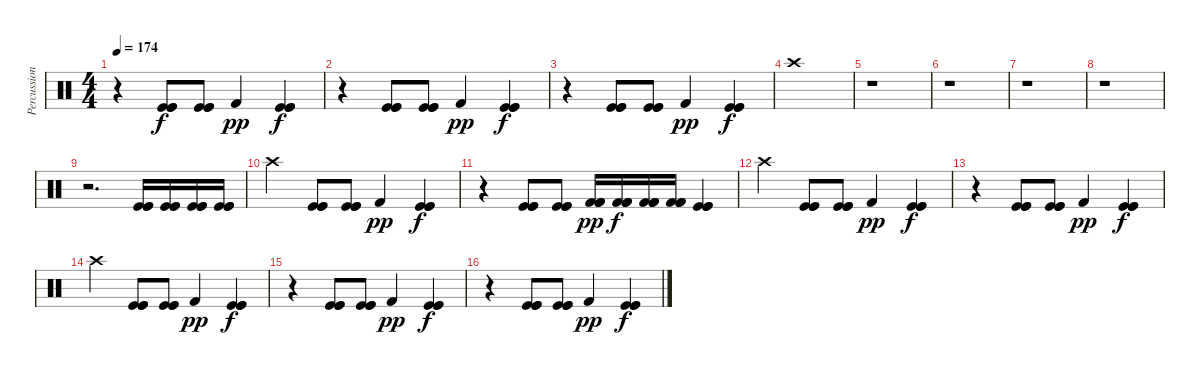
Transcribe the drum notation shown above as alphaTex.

\track ("Percussions" "Percussion") {instrument percussion}
\staff {score}
\articulation defaults
\ts (4 4)
\tempo 174
\clef neutral
\ks c
r.4{dy f} ("Kick (hit)" "Kick (hit)" "Kick (hit)").8 ("Kick (hit)" "Kick (hit)" "Kick (hit)").8 "Kick (hit) 2".4{dy pp} ("Kick (hit)" "Kick (hit)" "Kick (hit)").4{dy f} |
r.4 ("Kick (hit)" "Kick (hit)" "Kick (hit)").8 ("Kick (hit)" "Kick (hit)" "Kick (hit)").8 "Kick (hit) 2".4{dy pp} ("Kick (hit)" "Kick (hit)" "Kick (hit)").4{dy f} |
r.4 ("Kick (hit)" "Kick (hit)" "Kick (hit)").8 ("Kick (hit)" "Kick (hit)" "Kick (hit)").8 "Kick (hit) 2".4{dy pp} ("Kick (hit)" "Kick (hit)" "Kick (hit)").4{dy f} |
"Crash high (hit)".1 |
r.1 |
r.1 |
r.1 |
r.1 |
r.2{d} ("Kick (hit)" "Kick (hit)" "Kick (hit)").16 ("Kick (hit)" "Kick (hit)" "Kick (hit)").16 ("Kick (hit)" "Kick (hit)" "Kick (hit)").16 ("Kick (hit)" "Kick (hit)" "Kick (hit)").16 |
"Crash high (hit)".4 ("Kick (hit)" "Kick (hit)" "Kick (hit)").8 ("Kick (hit)" "Kick (hit)" "Kick (hit)").8 "Kick (hit) 2".4{dy pp} ("Kick (hit)" "Kick (hit)" "Kick (hit)").4{dy f} |
r.4 ("Kick (hit)" "Kick (hit)" "Kick (hit)").8 ("Kick (hit)" "Kick (hit)" "Kick (hit)").8 ("Kick (hit) 2" "Kick (hit) 2" "Kick (hit) 2").16{dy pp} ("Kick (hit) 2" "Kick (hit) 2" "Kick (hit) 2").16{dy f} ("Kick (hit) 2" "Kick (hit) 2" "Kick (hit) 2").16 ("Kick (hit) 2" "Kick (hit) 2" "Kick (hit) 2").16 ("Kick (hit)" "Kick (hit)" "Kick (hit)").4 |
"Crash high (hit)".4 ("Kick (hit)" "Kick (hit)" "Kick (hit)").8 ("Kick (hit)" "Kick (hit)" "Kick (hit)").8 "Kick (hit) 2".4{dy pp} ("Kick (hit)" "Kick (hit)" "Kick (hit)").4{dy f} |
r.4 ("Kick (hit)" "Kick (hit)" "Kick (hit)").8 ("Kick (hit)" "Kick (hit)" "Kick (hit)").8 "Kick (hit) 2".4{dy pp} ("Kick (hit)" "Kick (hit)" "Kick (hit)").4{dy f} |
"Crash high (hit)".4 ("Kick (hit)" "Kick (hit)" "Kick (hit)").8 ("Kick (hit)" "Kick (hit)" "Kick (hit)").8 "Kick (hit) 2".4{dy pp} ("Kick (hit)" "Kick (hit)" "Kick (hit)").4{dy f} |
r.4 ("Kick (hit)" "Kick (hit)" "Kick (hit)").8 ("Kick (hit)" "Kick (hit)" "Kick (hit)").8 "Kick (hit) 2".4{dy pp} ("Kick (hit)" "Kick (hit)" "Kick (hit)").4{dy f} |
r.4 ("Kick (hit)" "Kick (hit)" "Kick (hit)").8 ("Kick (hit)" "Kick (hit)" "Kick (hit)").8 "Kick (hit) 2".4{dy pp} ("Kick (hit)" "Kick (hit)" "Kick (hit)").4{dy f}
